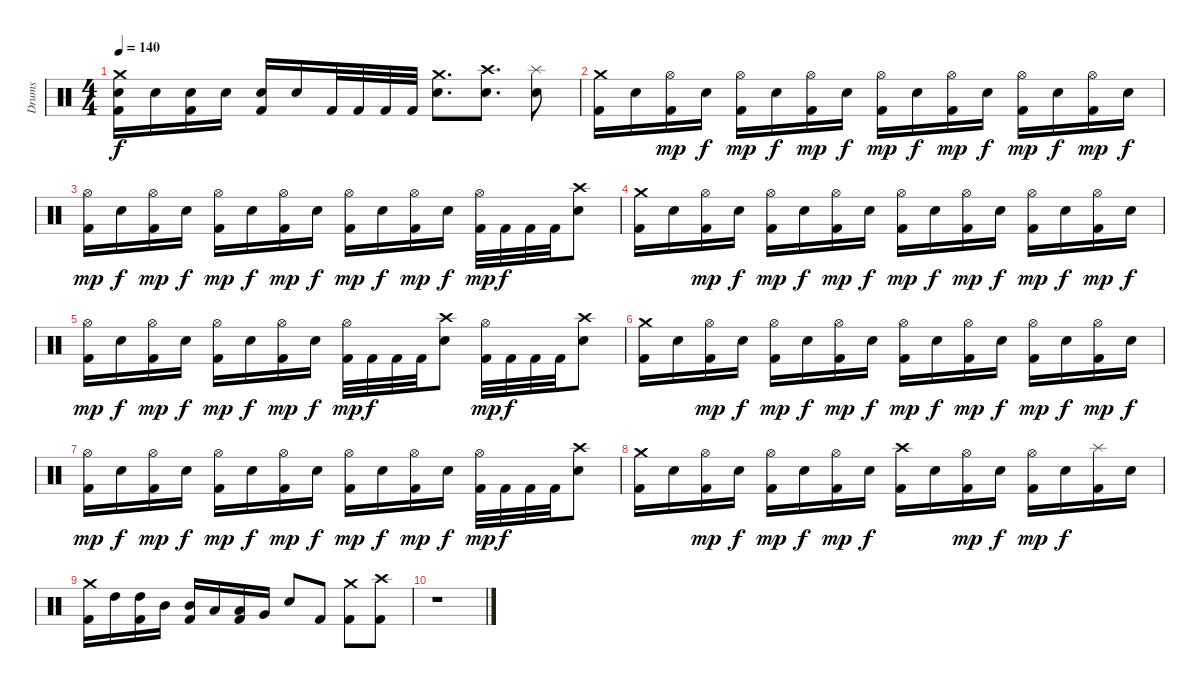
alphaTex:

\track ("Drums" "Drums") {instrument percussion}
\staff {score}
\articulation defaults
\ts (4 4)
\tempo 140
\clef neutral
\ks c
("Crash medium (hit)" "Snare (hit) 2" "Kick (hit) 2").16{dy f} "Snare (hit) 2".16 ("Snare (hit) 2" "Kick (hit) 2").16 "Snare (hit) 2".16 ("Snare (hit) 2" "Kick (hit) 2").16 "Snare (hit) 2".16 "Kick (hit) 2".32 "Kick (hit) 2".32 "Kick (hit) 2".32 "Kick (hit) 2".32 ("Crash medium (hit)" "Snare (hit) 2").8{d} ("Crash high (hit)" "Snare (hit) 2").8{d} ("Splash (hit)" "Snare (hit) 2").8 |
("Crash medium (hit)" "Kick (hit) 2").16 "Snare (hit) 2".16 ("Hi-Hat (open)" "Kick (hit) 2").16{dy mp} "Snare (hit) 2".16{dy f} ("Hi-Hat (open)" "Kick (hit) 2").16{dy mp} "Snare (hit) 2".16{dy f} ("Hi-Hat (open)" "Kick (hit) 2").16{dy mp} "Snare (hit) 2".16{dy f} ("Hi-Hat (open)" "Kick (hit) 2").16{dy mp} "Snare (hit) 2".16{dy f} ("Hi-Hat (open)" "Kick (hit) 2").16{dy mp} "Snare (hit) 2".16{dy f} ("Hi-Hat (open)" "Kick (hit) 2").16{dy mp} "Snare (hit) 2".16{dy f} ("Hi-Hat (open)" "Kick (hit) 2").16{dy mp} "Snare (hit) 2".16{dy f} |
("Hi-Hat (open)" "Kick (hit) 2").16{dy mp} "Snare (hit) 2".16{dy f} ("Hi-Hat (open)" "Kick (hit) 2").16{dy mp} "Snare (hit) 2".16{dy f} ("Hi-Hat (open)" "Kick (hit) 2").16{dy mp} "Snare (hit) 2".16{dy f} ("Hi-Hat (open)" "Kick (hit) 2").16{dy mp} "Snare (hit) 2".16{dy f} ("Hi-Hat (open)" "Kick (hit) 2").16{dy mp} "Snare (hit) 2".16{dy f} ("Hi-Hat (open)" "Kick (hit) 2").16{dy mp} "Snare (hit) 2".16{dy f} ("Hi-Hat (open)" "Kick (hit) 2").32{dy mp} "Kick (hit) 2".32{dy f} "Kick (hit) 2".32 "Kick (hit) 2".32 ("Crash high (hit)" "Snare (hit) 2").8 |
("Crash medium (hit)" "Kick (hit) 2").16 "Snare (hit) 2".16 ("Hi-Hat (open)" "Kick (hit) 2").16{dy mp} "Snare (hit) 2".16{dy f} ("Hi-Hat (open)" "Kick (hit) 2").16{dy mp} "Snare (hit) 2".16{dy f} ("Hi-Hat (open)" "Kick (hit) 2").16{dy mp} "Snare (hit) 2".16{dy f} ("Hi-Hat (open)" "Kick (hit) 2").16{dy mp} "Snare (hit) 2".16{dy f} ("Hi-Hat (open)" "Kick (hit) 2").16{dy mp} "Snare (hit) 2".16{dy f} ("Hi-Hat (open)" "Kick (hit) 2").16{dy mp} "Snare (hit) 2".16{dy f} ("Hi-Hat (open)" "Kick (hit) 2").16{dy mp} "Snare (hit) 2".16{dy f} |
("Hi-Hat (open)" "Kick (hit) 2").16{dy mp} "Snare (hit) 2".16{dy f} ("Hi-Hat (open)" "Kick (hit) 2").16{dy mp} "Snare (hit) 2".16{dy f} ("Hi-Hat (open)" "Kick (hit) 2").16{dy mp} "Snare (hit) 2".16{dy f} ("Hi-Hat (open)" "Kick (hit) 2").16{dy mp} "Snare (hit) 2".16{dy f} ("Hi-Hat (open)" "Kick (hit) 2").32{dy mp} "Kick (hit) 2".32{dy f} "Kick (hit) 2".32 "Kick (hit) 2".32 ("Crash high (hit)" "Snare (hit) 2").8 ("Hi-Hat (open)" "Kick (hit) 2").32{dy mp} "Kick (hit) 2".32{dy f} "Kick (hit) 2".32 "Kick (hit) 2".32 ("Crash high (hit)" "Snare (hit) 2").8 |
("Crash medium (hit)" "Kick (hit) 2").16 "Snare (hit) 2".16 ("Hi-Hat (open)" "Kick (hit) 2").16{dy mp} "Snare (hit) 2".16{dy f} ("Hi-Hat (open)" "Kick (hit) 2").16{dy mp} "Snare (hit) 2".16{dy f} ("Hi-Hat (open)" "Kick (hit) 2").16{dy mp} "Snare (hit) 2".16{dy f} ("Hi-Hat (open)" "Kick (hit) 2").16{dy mp} "Snare (hit) 2".16{dy f} ("Hi-Hat (open)" "Kick (hit) 2").16{dy mp} "Snare (hit) 2".16{dy f} ("Hi-Hat (open)" "Kick (hit) 2").16{dy mp} "Snare (hit) 2".16{dy f} ("Hi-Hat (open)" "Kick (hit) 2").16{dy mp} "Snare (hit) 2".16{dy f} |
("Hi-Hat (open)" "Kick (hit) 2").16{dy mp} "Snare (hit) 2".16{dy f} ("Hi-Hat (open)" "Kick (hit) 2").16{dy mp} "Snare (hit) 2".16{dy f} ("Hi-Hat (open)" "Kick (hit) 2").16{dy mp} "Snare (hit) 2".16{dy f} ("Hi-Hat (open)" "Kick (hit) 2").16{dy mp} "Snare (hit) 2".16{dy f} ("Hi-Hat (open)" "Kick (hit) 2").16{dy mp} "Snare (hit) 2".16{dy f} ("Hi-Hat (open)" "Kick (hit) 2").16{dy mp} "Snare (hit) 2".16{dy f} ("Hi-Hat (open)" "Kick (hit) 2").32{dy mp} "Kick (hit) 2".32{dy f} "Kick (hit) 2".32 "Kick (hit) 2".32 ("Crash high (hit)" "Snare (hit) 2").8 |
("Crash medium (hit)" "Kick (hit) 2").16 "Snare (hit) 2".16 ("Hi-Hat (open)" "Kick (hit) 2").16{dy mp} "Snare (hit) 2".16{dy f} ("Hi-Hat (open)" "Kick (hit) 2").16{dy mp} "Snare (hit) 2".16{dy f} ("Hi-Hat (open)" "Kick (hit) 2").16{dy mp} "Snare (hit) 2".16{dy f} ("Crash high (hit)" "Kick (hit) 2").16 "Snare (hit) 2".16 ("Hi-Hat (open)" "Kick (hit) 2").16{dy mp} "Snare (hit) 2".16{dy f} ("Hi-Hat (open)" "Kick (hit) 2").16{dy mp} "Snare (hit) 2".16{dy f} ("Splash (hit)" "Kick (hit) 2").16 "Snare (hit) 2".16 |
("Crash medium (hit)" "Kick (hit) 2").16 "High Tom (hit)".16 ("High Tom (hit)" "Kick (hit) 2").16 "Mid Tom (hit)".16 ("Mid Tom (hit)" "Kick (hit) 2").16 "Low Tom (hit)".16 ("Low Tom (hit)" "Kick (hit) 2").16 "Very Low Tom (hit)".16 "Snare (hit) 2".8 "Kick (hit) 2".8 ("Crash medium (hit)" "Kick (hit) 2").8 ("Crash high (hit)" "Kick (hit) 2").8 |
r.1
